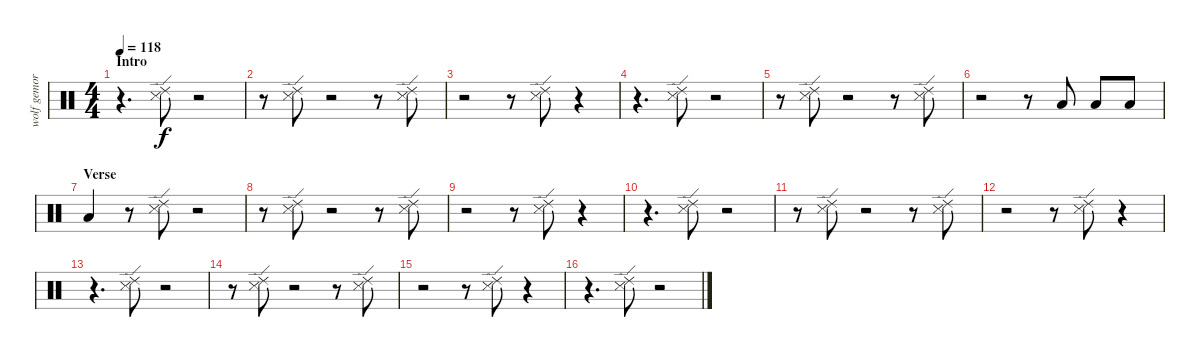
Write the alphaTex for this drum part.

\track ("wolf gemora" "wolf gemor") {instrument percussion}
\staff {score}
\articulation defaults
\ts (4 4)
\section ("" "Intro")
\tempo 118
\clef neutral
\ks c
r.4{d dy f balance 14} ("Snare (side stick) 3" "Ride (edge) 2").8 r.2 |
r.8 ("Snare (side stick) 3" "Ride (edge) 2").8 r.2 r.8 ("Snare (side stick) 3" "Ride (edge) 2").8 |
r.2 r.8 ("Snare (side stick) 3" "Ride (edge) 2").8 r.4 |
r.4{d} ("Snare (side stick) 3" "Ride (edge) 2").8 r.2 |
r.8 ("Snare (side stick) 3" "Ride (edge) 2").8 r.2 r.8 ("Snare (side stick) 3" "Ride (edge) 2").8 |
r.2 r.8 "Low Tom (hit)".8 "Low Tom (hit)".8 "Low Tom (hit)".8 |
\section ("" "Verse")
"Low Tom (hit)".4 r.8 ("Snare (side stick) 3" "Ride (edge) 2").8 r.2 |
r.8 ("Snare (side stick) 3" "Ride (edge) 2").8 r.2 r.8 ("Snare (side stick) 3" "Ride (edge) 2").8 |
r.2 r.8 ("Snare (side stick) 3" "Ride (edge) 2").8 r.4 |
r.4{d} ("Snare (side stick) 3" "Ride (edge) 2").8 r.2 |
r.8 ("Snare (side stick) 3" "Ride (edge) 2").8 r.2 r.8 ("Snare (side stick) 3" "Ride (edge) 2").8 |
r.2 r.8 ("Snare (side stick) 3" "Ride (edge) 2").8 r.4 |
r.4{d} ("Snare (side stick) 3" "Ride (edge) 2").8 r.2 |
r.8 ("Snare (side stick) 3" "Ride (edge) 2").8 r.2 r.8 ("Snare (side stick) 3" "Ride (edge) 2").8 |
r.2 r.8 ("Snare (side stick) 3" "Ride (edge) 2").8 r.4 |
r.4{d} ("Snare (side stick) 3" "Ride (edge) 2").8 r.2
